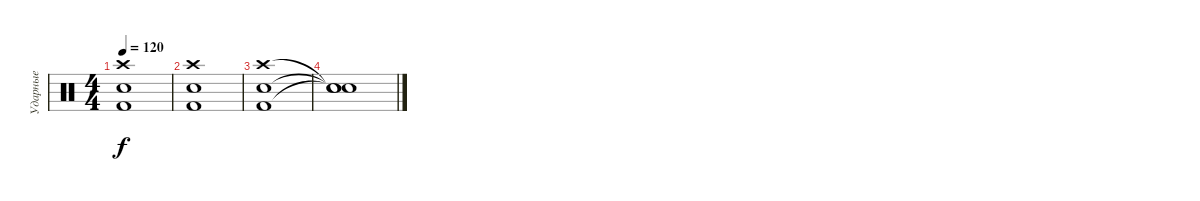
\track ("Ударные" "Ударные") {instrument percussion}
\staff {score}
\articulation defaults
\ts (4 4)
\tempo 120
\clef neutral
\ks c
("Crash high (hit)" "Electric Snare (hit)" "Kick (hit) 2").1{dy f} |
("Crash high (hit)" "Electric Snare (hit)" "Kick (hit) 2").1 |
("Crash high (hit)" "Electric Snare (hit)" "Kick (hit) 2").1 |
("Snare (hit)"{t} "Snare (hit)"{t} "Snare (hit)"{t}).1
